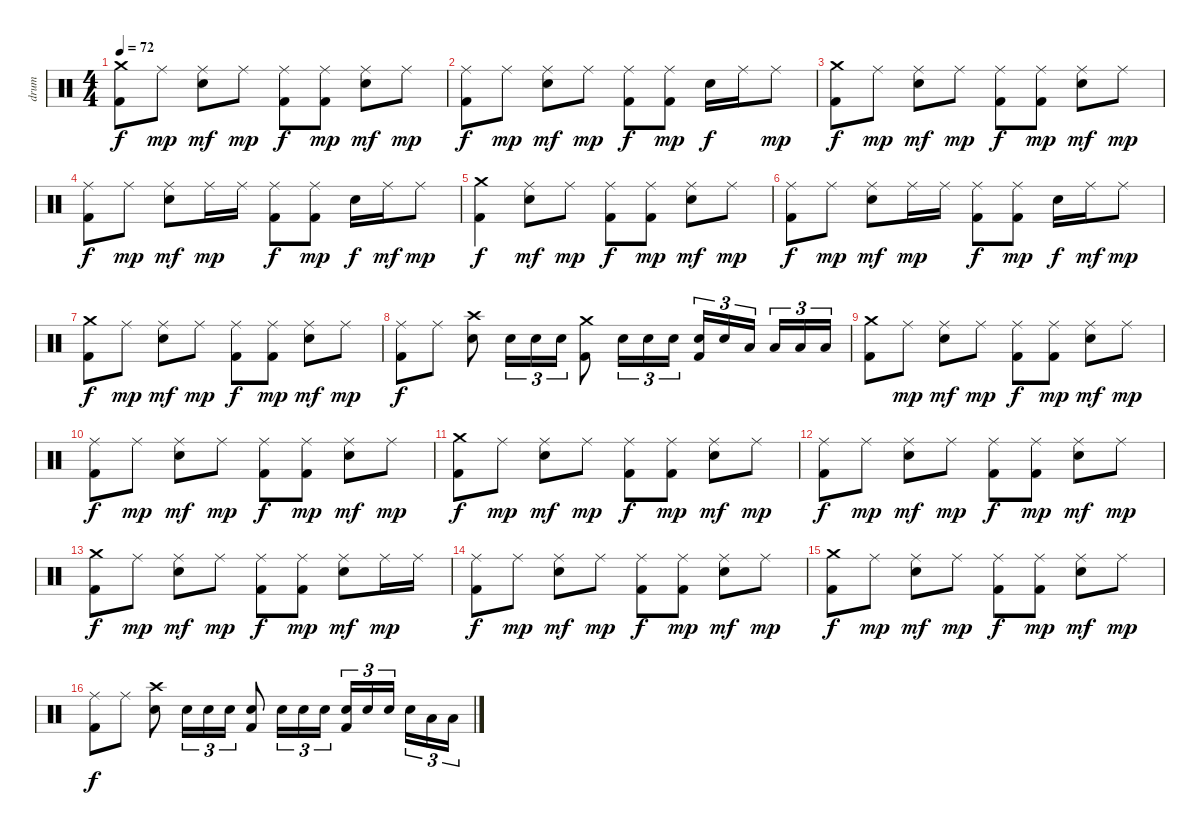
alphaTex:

\track ("drum" "drum") {instrument percussion}
\staff {score}
\articulation defaults
\ts (4 4)
\tempo 72
\clef neutral
\ks c
("Crash medium (hit)" "Kick (hit) 2").8{dy f} "Ride (middle)".8{dy mp} ("Ride (middle)" "Electric Snare (hit)").8{dy mf} "Ride (middle)".8{dy mp} ("Ride (middle)" "Kick (hit) 2").8{dy f} ("Ride (middle)" "Kick (hit) 2").8{dy mp} ("Ride (middle)" "Electric Snare (hit)").8{dy mf} "Ride (middle)".8{dy mp} |
("Ride (middle)" "Kick (hit) 2").8{dy f} "Ride (middle)".8{dy mp} ("Ride (middle)" "Electric Snare (hit)").8{dy mf} "Ride (middle)".8{dy mp} ("Ride (middle)" "Kick (hit) 2").8{dy f} ("Ride (middle)" "Kick (hit) 2").8{dy mp} "Electric Snare (hit)".16{dy f} "Ride (middle)".16 "Ride (middle)".8{dy mp} |
("Crash medium (hit)" "Kick (hit) 2").8{dy f} "Ride (middle)".8{dy mp} ("Ride (middle)" "Electric Snare (hit)").8{dy mf} "Ride (middle)".8{dy mp} ("Ride (middle)" "Kick (hit) 2").8{dy f} ("Ride (middle)" "Kick (hit) 2").8{dy mp} ("Ride (middle)" "Electric Snare (hit)").8{dy mf} "Ride (middle)".8{dy mp} |
("Ride (middle)" "Kick (hit) 2").8{dy f} "Ride (middle)".8{dy mp} ("Ride (middle)" "Electric Snare (hit)").8{dy mf} "Ride (middle)".16{dy mp} "Ride (middle)".16 ("Ride (middle)" "Kick (hit) 2").8{dy f} ("Ride (middle)" "Kick (hit) 2").8{dy mp} "Electric Snare (hit)".16{dy f} "Ride (middle)".16{dy mf} "Ride (middle)".8{dy mp} |
("Crash medium (hit)" "Kick (hit) 2").4{dy f} ("Ride (middle)" "Electric Snare (hit)").8{dy mf} "Ride (middle)".8{dy mp} ("Ride (middle)" "Kick (hit) 2").8{dy f} ("Ride (middle)" "Kick (hit) 2").8{dy mp} ("Ride (middle)" "Electric Snare (hit)").8{dy mf} "Ride (middle)".8{dy mp} |
("Ride (middle)" "Kick (hit) 2").8{dy f} "Ride (middle)".8{dy mp} ("Ride (middle)" "Electric Snare (hit)").8{dy mf} "Ride (middle)".16{dy mp} "Ride (middle)".16 ("Ride (middle)" "Kick (hit) 2").8{dy f} ("Ride (middle)" "Kick (hit) 2").8{dy mp} "Electric Snare (hit)".16{dy f} "Ride (middle)".16{dy mf} "Ride (middle)".8{dy mp} |
("Crash medium (hit)" "Kick (hit) 2").8{dy f} "Ride (middle)".8{dy mp} ("Ride (middle)" "Electric Snare (hit)").8{dy mf} "Ride (middle)".8{dy mp} ("Ride (middle)" "Kick (hit) 2").8{dy f} ("Ride (middle)" "Kick (hit) 2").8{dy mp} ("Ride (middle)" "Electric Snare (hit)").8{dy mf} "Ride (middle)".8{dy mp} |
("Ride (middle)" "Kick (hit) 2").8{dy f} "Ride (middle)".8 ("Crash high (hit)" "Electric Snare (hit)").8 "Electric Snare (hit)".16{tu (3 2)} "Electric Snare (hit)".16{tu (3 2)} "Electric Snare (hit)".16{tu (3 2)} ("Crash medium (hit)" "Kick (hit) 2").8 "Electric Snare (hit)".16{tu (3 2)} "Electric Snare (hit)".16{tu (3 2)} "Electric Snare (hit)".16{tu (3 2)} ("Electric Snare (hit)" "Kick (hit) 2").16{tu (3 2)} "Electric Snare (hit)".16{tu (3 2)} "Low Tom (hit)".16{tu (3 2) beam splitsecondary} "Low Tom (hit)".16{tu (3 2)} "Low Tom (hit)".16{tu (3 2)} "Low Tom (hit)".16{tu (3 2)} |
("Crash medium (hit)" "Kick (hit) 2").8 "Ride (middle)".8{dy mp} ("Ride (middle)" "Electric Snare (hit)").8{dy mf} "Ride (middle)".8{dy mp} ("Ride (middle)" "Kick (hit) 2").8{dy f} ("Ride (middle)" "Kick (hit) 2").8{dy mp} ("Ride (middle)" "Electric Snare (hit)").8{dy mf} "Ride (middle)".8{dy mp} |
("Ride (middle)" "Kick (hit) 2").8{dy f} "Ride (middle)".8{dy mp} ("Ride (middle)" "Electric Snare (hit)").8{dy mf} "Ride (middle)".8{dy mp} ("Ride (middle)" "Kick (hit) 2").8{dy f} ("Ride (middle)" "Kick (hit) 2").8{dy mp} ("Ride (middle)" "Electric Snare (hit)").8{dy mf} "Ride (middle)".8{dy mp} |
("Crash medium (hit)" "Kick (hit) 2").8{dy f} "Ride (middle)".8{dy mp} ("Ride (middle)" "Electric Snare (hit)").8{dy mf} "Ride (middle)".8{dy mp} ("Ride (middle)" "Kick (hit) 2").8{dy f} ("Ride (middle)" "Kick (hit) 2").8{dy mp} ("Ride (middle)" "Electric Snare (hit)").8{dy mf} "Ride (middle)".8{dy mp} |
("Ride (middle)" "Kick (hit) 2").8{dy f} "Ride (middle)".8{dy mp} ("Ride (middle)" "Electric Snare (hit)").8{dy mf} "Ride (middle)".8{dy mp} ("Ride (middle)" "Kick (hit) 2").8{dy f} ("Ride (middle)" "Kick (hit) 2").8{dy mp} ("Ride (middle)" "Electric Snare (hit)").8{dy mf} "Ride (middle)".8{dy mp} |
("Crash medium (hit)" "Kick (hit) 2").8{dy f} "Ride (middle)".8{dy mp} ("Ride (middle)" "Electric Snare (hit)").8{dy mf} "Ride (middle)".8{dy mp} ("Ride (middle)" "Kick (hit) 2").8{dy f} ("Ride (middle)" "Kick (hit) 2").8{dy mp} ("Ride (middle)" "Electric Snare (hit)").8{dy mf} "Ride (middle)".16{dy mp} "Ride (middle)".16 |
("Ride (middle)" "Kick (hit) 2").8{dy f} "Ride (middle)".8{dy mp} ("Ride (middle)" "Electric Snare (hit)").8{dy mf} "Ride (middle)".8{dy mp} ("Ride (middle)" "Kick (hit) 2").8{dy f} ("Ride (middle)" "Kick (hit) 2").8{dy mp} ("Ride (middle)" "Electric Snare (hit)").8{dy mf} "Ride (middle)".8{dy mp} |
("Crash medium (hit)" "Kick (hit) 2").8{dy f} "Ride (middle)".8{dy mp} ("Ride (middle)" "Electric Snare (hit)").8{dy mf} "Ride (middle)".8{dy mp} ("Ride (middle)" "Kick (hit) 2").8{dy f} ("Ride (middle)" "Kick (hit) 2").8{dy mp} ("Ride (middle)" "Electric Snare (hit)").8{dy mf} "Ride (middle)".8{dy mp} |
("Ride (middle)" "Kick (hit) 2").8{dy f} "Ride (middle)".8 ("Crash high (hit)" "Electric Snare (hit)").8 "Electric Snare (hit)".16{tu (3 2)} "Electric Snare (hit)".16{tu (3 2)} "Electric Snare (hit)".16{tu (3 2)} ("Electric Snare (hit)" "Kick (hit) 2").8 "Electric Snare (hit)".16{tu (3 2)} "Electric Snare (hit)".16{tu (3 2)} "Electric Snare (hit)".16{tu (3 2)} ("Electric Snare (hit)" "Kick (hit) 2").16{tu (3 2)} "Electric Snare (hit)".16{tu (3 2)} "Electric Snare (hit)".16{tu (3 2) beam splitsecondary} "Electric Snare (hit)".16{tu (3 2)} "Low Tom (hit)".16{tu (3 2)} "Low Tom (hit)".16{tu (3 2)}
